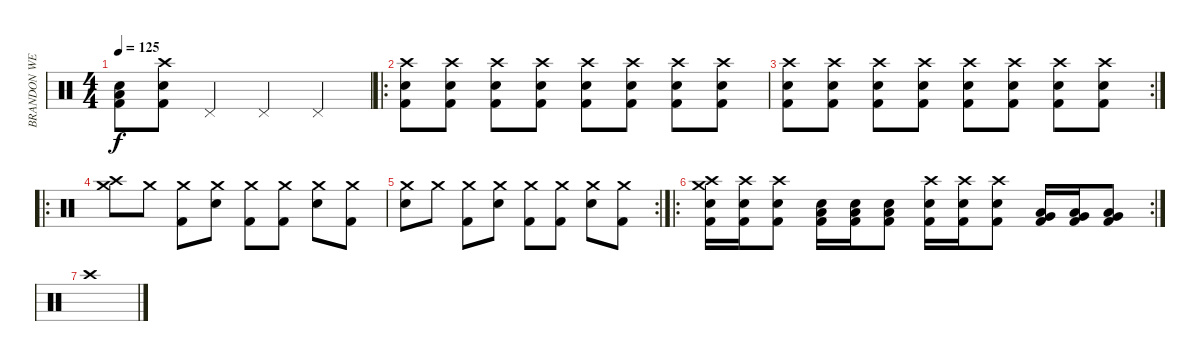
\track ("BRANDON WEBB" "BRANDON WE") {instrument percussion}
\staff {score}
\articulation defaults
\ts (4 4)
\tempo 125
\clef neutral
\ks c
("Low Floor Tom (hit)" "Kick (hit) 2" "Snare (hit) 2").8{dy f} ("Crash high (hit)" "Kick (hit) 2" "Snare (hit) 2").8 "Pedal Hi-Hat (hit)".4 "Pedal Hi-Hat (hit)".4 "Pedal Hi-Hat (hit)".4 |
\ro
("Crash high (hit)" "Kick (hit) 2" "Snare (hit) 2").8 ("Crash high (hit)" "Kick (hit) 2" "Snare (hit) 2").8 ("Crash high (hit)" "Kick (hit) 2" "Snare (hit) 2").8 ("Crash high (hit)" "Kick (hit) 2" "Snare (hit) 2").8 ("Crash high (hit)" "Kick (hit) 2" "Snare (hit) 2").8 ("Crash high (hit)" "Kick (hit) 2" "Snare (hit) 2").8 ("Crash high (hit)" "Kick (hit) 2" "Snare (hit) 2").8 ("Crash high (hit)" "Kick (hit) 2" "Snare (hit) 2").8 |
\rc 2
("Crash high (hit)" "Kick (hit) 2" "Snare (hit) 2").8 ("Crash high (hit)" "Kick (hit) 2" "Snare (hit) 2").8 ("Crash high (hit)" "Kick (hit) 2" "Snare (hit) 2").8 ("Crash high (hit)" "Kick (hit) 2" "Snare (hit) 2").8 ("Crash high (hit)" "Kick (hit) 2" "Snare (hit) 2").8 ("Crash high (hit)" "Kick (hit) 2" "Snare (hit) 2").8 ("Crash high (hit)" "Kick (hit) 2" "Snare (hit) 2").8 ("Crash high (hit)" "Kick (hit) 2" "Snare (hit) 2").8 |
\ro
("Crash high (hit)" "Crash medium (hit)").8 "Crash medium (hit)".8 ("Crash medium (hit)" "Kick (hit) 2").8 ("Crash medium (hit)" "Snare (hit) 2").8 ("Crash medium (hit)" "Kick (hit) 2").8 ("Crash medium (hit)" "Kick (hit) 2").8 ("Crash medium (hit)" "Snare (hit) 2").8 ("Crash medium (hit)" "Kick (hit) 2").8 |
\rc 2
("Crash medium (hit)" "Snare (hit) 2").8 "Crash medium (hit)".8 ("Crash medium (hit)" "Kick (hit) 2").8 ("Crash medium (hit)" "Snare (hit) 2").8 ("Crash medium (hit)" "Kick (hit) 2").8 ("Crash medium (hit)" "Kick (hit) 2").8 ("Crash medium (hit)" "Snare (hit) 2").8 ("Crash medium (hit)" "Kick (hit) 2").8 |
\ro
\rc 2
("Crash high (hit)" "Crash medium (hit)" "Kick (hit) 2" "Snare (hit) 2").16 ("Crash high (hit)" "Kick (hit) 2" "Snare (hit) 2").16 ("Crash high (hit)" "Kick (hit) 2" "Snare (hit) 2").8 ("Low Floor Tom (hit)" "Kick (hit) 2" "Snare (hit) 2").16 ("Low Floor Tom (hit)" "Kick (hit) 2" "Snare (hit) 2").16 ("Low Floor Tom (hit)" "Kick (hit) 2" "Snare (hit) 2").8 ("Crash high (hit)" "Snare (hit) 2" "Kick (hit) 2").16 ("Crash high (hit)" "Snare (hit) 2" "Kick (hit) 2").16 ("Crash high (hit)" "Snare (hit) 2" "Kick (hit) 2").8 ("Low Floor Tom (hit)" "Kick (hit) 2" "Very Low Tom (hit)").16 ("Low Floor Tom (hit)" "Kick (hit) 2" "Very Low Tom (hit)").16 ("Low Floor Tom (hit)" "Kick (hit) 2" "Very Low Tom (hit)").8 |
"Crash high (hit)".1
